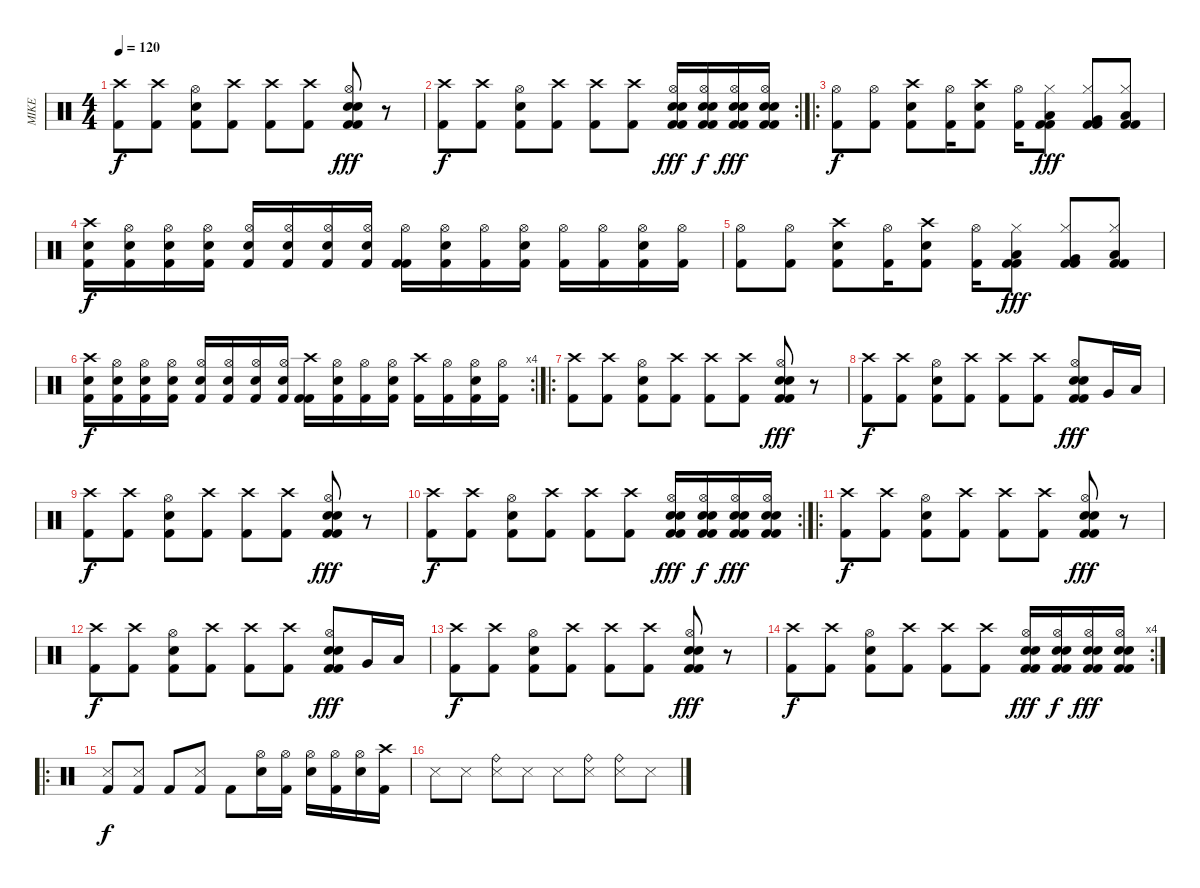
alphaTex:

\track ("MIKE" "MIKE") {instrument percussion}
\staff {score}
\articulation defaults
\ts (4 4)
\tempo 120
\clef neutral
\ks c
("Crash high (hit)" "Kick (hit) 2").8{dy f} ("Crash high (hit)" "Kick (hit) 2").8 ("Hi-Hat (open)" "Electric Snare (hit)" "Kick (hit) 2").8 ("Crash high (hit)" "Kick (hit) 2").8 ("Crash high (hit)" "Kick (hit) 2").8 ("Crash high (hit)" "Kick (hit) 2").8 ("Hi-Hat (open)" "Kick (hit) 2" "Electric Snare (hit)" "Electric Snare (hit)" "Kick (hit) 2").8{dy fff} r.8 |
\rc 2
("Crash high (hit)" "Kick (hit) 2").8{dy f} ("Crash high (hit)" "Kick (hit) 2").8 ("Hi-Hat (open)" "Electric Snare (hit)" "Kick (hit) 2").8 ("Crash high (hit)" "Kick (hit) 2").8 ("Crash high (hit)" "Kick (hit) 2").8 ("Crash high (hit)" "Kick (hit) 2").8 ("Hi-Hat (open)" "Kick (hit) 2" "Electric Snare (hit)" "Electric Snare (hit)" "Kick (hit) 2").16{dy fff} ("Hi-Hat (open)" "Kick (hit) 2" "Electric Snare (hit)" "Electric Snare (hit)" "Kick (hit) 2").16{dy f} ("Hi-Hat (open)" "Kick (hit) 2" "Electric Snare (hit)" "Electric Snare (hit)" "Kick (hit) 2").16{dy fff} ("Hi-Hat (open)" "Kick (hit) 2" "Electric Snare (hit)" "Electric Snare (hit)" "Kick (hit) 2").16 |
\ro
("Hi-Hat (open)" "Kick (hit) 2").8{dy f} ("Hi-Hat (open)" "Kick (hit) 2").8 ("Crash high (hit)" "Electric Snare (hit)" "Kick (hit) 2").8 ("Hi-Hat (open)" "Kick (hit) 2").16 ("Crash high (hit)" "Electric Snare (hit)" "Kick (hit) 2").8 ("Hi-Hat (open)" "Kick (hit) 2").16 ("Hi-Hat (closed)" "Low Tom (hit)" "Kick (hit) 2" "Kick (hit) 2").8{dy fff} ("Hi-Hat (closed)" "Very Low Tom (hit)" "Kick (hit) 2" "Kick (hit) 2").8 ("Hi-Hat (closed)" "Low Floor Tom (hit)" "Kick (hit) 2" "Kick (hit) 2").8 |
("Crash high (hit)" "Kick (hit) 2" "Snare (hit) 2").16{dy f} ("Hi-Hat (open)" "Kick (hit) 2" "Snare (hit) 2").16 ("Hi-Hat (open)" "Kick (hit) 2" "Electric Snare (hit)").16 ("Hi-Hat (open)" "Kick (hit) 2" "Snare (hit) 2").16 ("Hi-Hat (open)" "Kick (hit) 2" "Snare (hit) 2").16 ("Hi-Hat (open)" "Kick (hit) 2" "Snare (hit) 2").16 ("Hi-Hat (open)" "Kick (hit) 2" "Snare (hit) 2").16 ("Hi-Hat (open)" "Kick (hit) 2" "Electric Snare (hit)").16 ("Hi-Hat (open)" "Kick (hit) 2" "Kick (hit) 2").16 ("Hi-Hat (open)" "Kick (hit) 2" "Snare (hit) 2").16 ("Hi-Hat (open)" "Kick (hit) 2").16 ("Hi-Hat (open)" "Kick (hit) 2" "Snare (hit) 2").16 ("Hi-Hat (open)" "Kick (hit) 2").16 ("Hi-Hat (open)" "Kick (hit) 2").16 ("Hi-Hat (open)" "Kick (hit) 2" "Snare (hit) 2").16 ("Hi-Hat (open)" "Kick (hit) 2").16 |
("Hi-Hat (open)" "Kick (hit) 2").8 ("Hi-Hat (open)" "Kick (hit) 2").8 ("Crash high (hit)" "Electric Snare (hit)" "Kick (hit) 2").8 ("Hi-Hat (open)" "Kick (hit) 2").16 ("Crash high (hit)" "Electric Snare (hit)" "Kick (hit) 2").8 ("Hi-Hat (open)" "Kick (hit) 2").16 ("Hi-Hat (closed)" "Low Tom (hit)" "Kick (hit) 2" "Kick (hit) 2").8{dy fff} ("Hi-Hat (closed)" "Very Low Tom (hit)" "Kick (hit) 2" "Kick (hit) 2").8 ("Hi-Hat (closed)" "Low Floor Tom (hit)" "Kick (hit) 2" "Kick (hit) 2").8 |
\rc 4
("Crash high (hit)" "Kick (hit) 2" "Snare (hit) 2").16{dy f} ("Hi-Hat (open)" "Kick (hit) 2" "Snare (hit) 2").16 ("Hi-Hat (open)" "Kick (hit) 2" "Electric Snare (hit)").16 ("Hi-Hat (open)" "Kick (hit) 2" "Snare (hit) 2").16 ("Hi-Hat (open)" "Kick (hit) 2" "Snare (hit) 2").16 ("Hi-Hat (open)" "Kick (hit) 2" "Snare (hit) 2").16 ("Hi-Hat (open)" "Kick (hit) 2" "Snare (hit) 2").16 ("Hi-Hat (open)" "Kick (hit) 2" "Electric Snare (hit)").16 ("Crash high (hit)" "Kick (hit) 2" "Kick (hit) 2").16 ("Hi-Hat (open)" "Kick (hit) 2" "Snare (hit) 2").16 ("Hi-Hat (open)" "Kick (hit) 2").16 ("Hi-Hat (open)" "Kick (hit) 2" "Snare (hit) 2").16 ("Crash high (hit)" "Kick (hit) 2").16 ("Hi-Hat (open)" "Kick (hit) 2").16 ("Hi-Hat (open)" "Kick (hit) 2" "Snare (hit) 2").16 ("Hi-Hat (open)" "Kick (hit) 2").16 |
\ro
("Crash high (hit)" "Kick (hit) 2").8 ("Crash high (hit)" "Kick (hit) 2").8 ("Hi-Hat (open)" "Electric Snare (hit)" "Kick (hit) 2").8 ("Crash high (hit)" "Kick (hit) 2").8 ("Crash high (hit)" "Kick (hit) 2").8 ("Crash high (hit)" "Kick (hit) 2").8 ("Hi-Hat (open)" "Kick (hit) 2" "Electric Snare (hit)" "Electric Snare (hit)" "Kick (hit) 2").8{dy fff} r.8 |
("Crash high (hit)" "Kick (hit) 2").8{dy f} ("Crash high (hit)" "Kick (hit) 2").8 ("Hi-Hat (open)" "Electric Snare (hit)" "Kick (hit) 2").8 ("Crash high (hit)" "Kick (hit) 2").8 ("Crash high (hit)" "Kick (hit) 2").8 ("Crash high (hit)" "Kick (hit) 2").8 ("Hi-Hat (open)" "Kick (hit) 2" "Electric Snare (hit)" "Electric Snare (hit)" "Kick (hit) 2").8{dy fff} "Very Low Tom (hit)".16 "Low Floor Tom (hit)".16 |
("Crash high (hit)" "Kick (hit) 2").8{dy f} ("Crash high (hit)" "Kick (hit) 2").8 ("Hi-Hat (open)" "Electric Snare (hit)" "Kick (hit) 2").8 ("Crash high (hit)" "Kick (hit) 2").8 ("Crash high (hit)" "Kick (hit) 2").8 ("Crash high (hit)" "Kick (hit) 2").8 ("Hi-Hat (open)" "Kick (hit) 2" "Electric Snare (hit)" "Electric Snare (hit)" "Kick (hit) 2").8{dy fff} r.8 |
\rc 2
("Crash high (hit)" "Kick (hit) 2").8{dy f} ("Crash high (hit)" "Kick (hit) 2").8 ("Hi-Hat (open)" "Electric Snare (hit)" "Kick (hit) 2").8 ("Crash high (hit)" "Kick (hit) 2").8 ("Crash high (hit)" "Kick (hit) 2").8 ("Crash high (hit)" "Kick (hit) 2").8 ("Hi-Hat (open)" "Kick (hit) 2" "Electric Snare (hit)" "Electric Snare (hit)" "Kick (hit) 2").16{dy fff} ("Hi-Hat (open)" "Kick (hit) 2" "Electric Snare (hit)" "Electric Snare (hit)" "Kick (hit) 2").16{dy f} ("Hi-Hat (open)" "Kick (hit) 2" "Electric Snare (hit)" "Electric Snare (hit)" "Kick (hit) 2").16{dy fff} ("Hi-Hat (open)" "Kick (hit) 2" "Electric Snare (hit)" "Electric Snare (hit)" "Kick (hit) 2").16 |
\ro
("Crash high (hit)" "Kick (hit) 2").8{dy f} ("Crash high (hit)" "Kick (hit) 2").8 ("Hi-Hat (open)" "Electric Snare (hit)" "Kick (hit) 2").8 ("Crash high (hit)" "Kick (hit) 2").8 ("Crash high (hit)" "Kick (hit) 2").8 ("Crash high (hit)" "Kick (hit) 2").8 ("Hi-Hat (open)" "Kick (hit) 2" "Electric Snare (hit)" "Electric Snare (hit)" "Kick (hit) 2").8{dy fff} r.8 |
("Crash high (hit)" "Kick (hit) 2").8{dy f} ("Crash high (hit)" "Kick (hit) 2").8 ("Hi-Hat (open)" "Electric Snare (hit)" "Kick (hit) 2").8 ("Crash high (hit)" "Kick (hit) 2").8 ("Crash high (hit)" "Kick (hit) 2").8 ("Crash high (hit)" "Kick (hit) 2").8 ("Hi-Hat (open)" "Kick (hit) 2" "Electric Snare (hit)" "Electric Snare (hit)" "Kick (hit) 2").8{dy fff} "Very Low Tom (hit)".16 "Low Floor Tom (hit)".16 |
("Crash high (hit)" "Kick (hit) 2").8{dy f} ("Crash high (hit)" "Kick (hit) 2").8 ("Hi-Hat (open)" "Electric Snare (hit)" "Kick (hit) 2").8 ("Crash high (hit)" "Kick (hit) 2").8 ("Crash high (hit)" "Kick (hit) 2").8 ("Crash high (hit)" "Kick (hit) 2").8 ("Hi-Hat (open)" "Kick (hit) 2" "Electric Snare (hit)" "Electric Snare (hit)" "Kick (hit) 2").8{dy fff} r.8 |
\rc 4
("Crash high (hit)" "Kick (hit) 2").8{dy f} ("Crash high (hit)" "Kick (hit) 2").8 ("Hi-Hat (open)" "Electric Snare (hit)" "Kick (hit) 2").8 ("Crash high (hit)" "Kick (hit) 2").8 ("Crash high (hit)" "Kick (hit) 2").8 ("Crash high (hit)" "Kick (hit) 2").8 ("Hi-Hat (open)" "Kick (hit) 2" "Electric Snare (hit)" "Electric Snare (hit)" "Kick (hit) 2").16{dy fff} ("Hi-Hat (open)" "Kick (hit) 2" "Electric Snare (hit)" "Electric Snare (hit)" "Kick (hit) 2").16{dy f} ("Hi-Hat (open)" "Kick (hit) 2" "Electric Snare (hit)" "Electric Snare (hit)" "Kick (hit) 2").16{dy fff} ("Hi-Hat (open)" "Kick (hit) 2" "Electric Snare (hit)" "Electric Snare (hit)" "Kick (hit) 2").16 |
\ro
("Snare (side stick) 3" "Kick (hit) 2").8{dy f} ("Snare (side stick) 3" "Kick (hit) 2").8 "Kick (hit) 2"{x}.8 ("Snare (side stick) 3" "Kick (hit) 2").8 "Kick (hit) 2"{x}.8 ("Hi-Hat (open)" "Electric Snare (hit)").16 ("Hi-Hat (open)" "Kick (hit) 2").16 ("Hi-Hat (open)" "Electric Snare (hit)").16 ("Hi-Hat (open)" "Kick (hit) 2").16 ("Hi-Hat (open)" "Electric Snare (hit)").16 ("Crash high (hit)" "Kick (hit) 2").16 |
"Snare (side stick) 3".8 "Snare (side stick) 3".8 ("Ride (bell)" "Snare (side stick) 3").8 "Snare (side stick) 3".8 "Snare (side stick) 3".8 ("Ride (bell)" "Snare (side stick) 3").8 ("Ride (bell)" "Snare (side stick) 3").8 "Snare (side stick) 3".8
